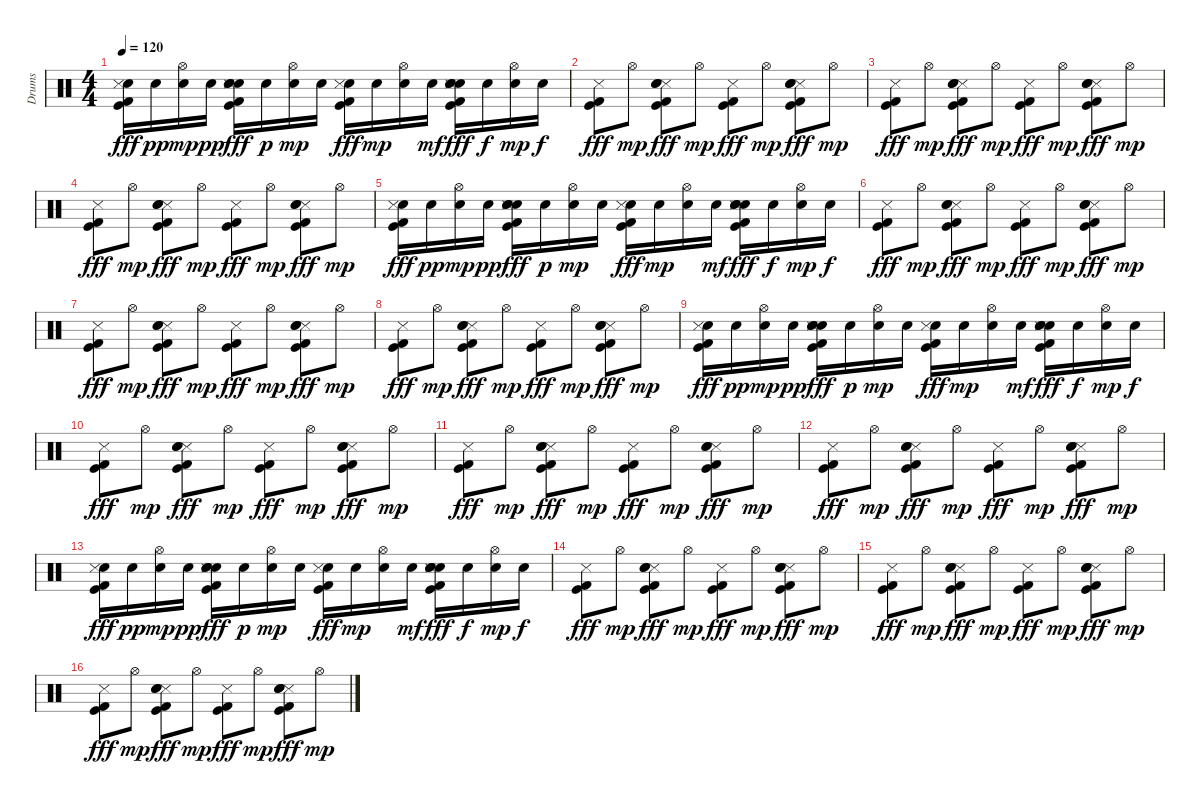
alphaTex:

\track ("Drums" "Drums") {instrument percussion}
\staff {score}
\articulation defaults
\ts (4 4)
\tempo 120
\clef neutral
\ks c
("Snare (hit)" "Metronome (hit)" "Kick (hit)" "Kick (hit) 2").16{dy fff} "Snare (hit)".16{dy pp} ("Snare (hit)" "Hi-Hat (open)").16{dy mp} "Snare (hit)".16{dy pp} ("Snare (hit)" "Metronome (hit)" "Kick (hit)" "Kick (hit) 2" "Snare (hit) 2" "Electric Snare (hit)").16{dy fff} "Snare (hit)".16{dy p} ("Snare (hit)" "Hi-Hat (open)").16{dy mp} "Snare (hit)".16 ("Snare (hit)" "Metronome (hit)" "Kick (hit)" "Kick (hit) 2").16{dy fff} "Snare (hit)".16{dy mp} ("Snare (hit)" "Hi-Hat (open)").16 "Snare (hit)".16{dy mf} ("Snare (hit)" "Metronome (hit)" "Kick (hit)" "Kick (hit) 2" "Snare (hit) 2" "Electric Snare (hit)").16{dy fff} "Snare (hit)".16{dy f} ("Snare (hit)" "Hi-Hat (open)").16{dy mp} "Snare (hit)".16{dy f} |
("Metronome (hit)" "Kick (hit)" "Kick (hit) 2").8{dy fff} "Hi-Hat (open)".8{dy mp} ("Metronome (hit)" "Kick (hit)" "Kick (hit) 2" "Snare (hit) 2" "Electric Snare (hit)").8{dy fff} "Hi-Hat (open)".8{dy mp} ("Metronome (hit)" "Kick (hit)" "Kick (hit) 2").8{dy fff} "Hi-Hat (open)".8{dy mp} ("Metronome (hit)" "Kick (hit)" "Kick (hit) 2" "Snare (hit) 2" "Electric Snare (hit)").8{dy fff} "Hi-Hat (open)".8{dy mp} |
("Metronome (hit)" "Kick (hit)" "Kick (hit) 2").8{dy fff} "Hi-Hat (open)".8{dy mp} ("Metronome (hit)" "Kick (hit)" "Kick (hit) 2" "Snare (hit) 2" "Electric Snare (hit)").8{dy fff} "Hi-Hat (open)".8{dy mp} ("Metronome (hit)" "Kick (hit)" "Kick (hit) 2").8{dy fff} "Hi-Hat (open)".8{dy mp} ("Metronome (hit)" "Kick (hit)" "Kick (hit) 2" "Snare (hit) 2" "Electric Snare (hit)").8{dy fff} "Hi-Hat (open)".8{dy mp} |
("Metronome (hit)" "Kick (hit)" "Kick (hit) 2").8{dy fff} "Hi-Hat (open)".8{dy mp} ("Metronome (hit)" "Kick (hit)" "Kick (hit) 2" "Snare (hit) 2" "Electric Snare (hit)").8{dy fff} "Hi-Hat (open)".8{dy mp} ("Metronome (hit)" "Kick (hit)" "Kick (hit) 2").8{dy fff} "Hi-Hat (open)".8{dy mp} ("Metronome (hit)" "Kick (hit)" "Kick (hit) 2" "Snare (hit) 2" "Electric Snare (hit)").8{dy fff} "Hi-Hat (open)".8{dy mp} |
("Snare (hit)" "Metronome (hit)" "Kick (hit)" "Kick (hit) 2").16{dy fff} "Snare (hit)".16{dy pp} ("Snare (hit)" "Hi-Hat (open)").16{dy mp} "Snare (hit)".16{dy pp} ("Snare (hit)" "Metronome (hit)" "Kick (hit)" "Kick (hit) 2" "Snare (hit) 2" "Electric Snare (hit)").16{dy fff} "Snare (hit)".16{dy p} ("Snare (hit)" "Hi-Hat (open)").16{dy mp} "Snare (hit)".16 ("Snare (hit)" "Metronome (hit)" "Kick (hit)" "Kick (hit) 2").16{dy fff} "Snare (hit)".16{dy mp} ("Snare (hit)" "Hi-Hat (open)").16 "Snare (hit)".16{dy mf} ("Snare (hit)" "Metronome (hit)" "Kick (hit)" "Kick (hit) 2" "Snare (hit) 2" "Electric Snare (hit)").16{dy fff} "Snare (hit)".16{dy f} ("Snare (hit)" "Hi-Hat (open)").16{dy mp} "Snare (hit)".16{dy f} |
("Metronome (hit)" "Kick (hit)" "Kick (hit) 2").8{dy fff} "Hi-Hat (open)".8{dy mp} ("Metronome (hit)" "Kick (hit)" "Kick (hit) 2" "Snare (hit) 2" "Electric Snare (hit)").8{dy fff} "Hi-Hat (open)".8{dy mp} ("Metronome (hit)" "Kick (hit)" "Kick (hit) 2").8{dy fff} "Hi-Hat (open)".8{dy mp} ("Metronome (hit)" "Kick (hit)" "Kick (hit) 2" "Snare (hit) 2" "Electric Snare (hit)").8{dy fff} "Hi-Hat (open)".8{dy mp} |
("Metronome (hit)" "Kick (hit)" "Kick (hit) 2").8{dy fff} "Hi-Hat (open)".8{dy mp} ("Metronome (hit)" "Kick (hit)" "Kick (hit) 2" "Snare (hit) 2" "Electric Snare (hit)").8{dy fff} "Hi-Hat (open)".8{dy mp} ("Metronome (hit)" "Kick (hit)" "Kick (hit) 2").8{dy fff} "Hi-Hat (open)".8{dy mp} ("Metronome (hit)" "Kick (hit)" "Kick (hit) 2" "Snare (hit) 2" "Electric Snare (hit)").8{dy fff} "Hi-Hat (open)".8{dy mp} |
("Metronome (hit)" "Kick (hit)" "Kick (hit) 2").8{dy fff} "Hi-Hat (open)".8{dy mp} ("Metronome (hit)" "Kick (hit)" "Kick (hit) 2" "Snare (hit) 2" "Electric Snare (hit)").8{dy fff} "Hi-Hat (open)".8{dy mp} ("Metronome (hit)" "Kick (hit)" "Kick (hit) 2").8{dy fff} "Hi-Hat (open)".8{dy mp} ("Metronome (hit)" "Kick (hit)" "Kick (hit) 2" "Snare (hit) 2" "Electric Snare (hit)").8{dy fff} "Hi-Hat (open)".8{dy mp} |
("Snare (hit)" "Metronome (hit)" "Kick (hit)" "Kick (hit) 2").16{dy fff} "Snare (hit)".16{dy pp} ("Snare (hit)" "Hi-Hat (open)").16{dy mp} "Snare (hit)".16{dy pp} ("Snare (hit)" "Metronome (hit)" "Kick (hit)" "Kick (hit) 2" "Snare (hit) 2" "Electric Snare (hit)").16{dy fff} "Snare (hit)".16{dy p} ("Snare (hit)" "Hi-Hat (open)").16{dy mp} "Snare (hit)".16 ("Snare (hit)" "Metronome (hit)" "Kick (hit)" "Kick (hit) 2").16{dy fff} "Snare (hit)".16{dy mp} ("Snare (hit)" "Hi-Hat (open)").16 "Snare (hit)".16{dy mf} ("Snare (hit)" "Metronome (hit)" "Kick (hit)" "Kick (hit) 2" "Snare (hit) 2" "Electric Snare (hit)").16{dy fff} "Snare (hit)".16{dy f} ("Snare (hit)" "Hi-Hat (open)").16{dy mp} "Snare (hit)".16{dy f} |
("Metronome (hit)" "Kick (hit)" "Kick (hit) 2").8{dy fff volume 13} "Hi-Hat (open)".8{dy mp} ("Metronome (hit)" "Kick (hit)" "Kick (hit) 2" "Snare (hit) 2" "Electric Snare (hit)").8{dy fff} "Hi-Hat (open)".8{dy mp} ("Metronome (hit)" "Kick (hit)" "Kick (hit) 2").8{dy fff} "Hi-Hat (open)".8{dy mp} ("Metronome (hit)" "Kick (hit)" "Kick (hit) 2" "Snare (hit) 2" "Electric Snare (hit)").8{dy fff} "Hi-Hat (open)".8{dy mp} |
("Metronome (hit)" "Kick (hit)" "Kick (hit) 2").8{dy fff} "Hi-Hat (open)".8{dy mp} ("Metronome (hit)" "Kick (hit)" "Kick (hit) 2" "Snare (hit) 2" "Electric Snare (hit)").8{dy fff} "Hi-Hat (open)".8{dy mp} ("Metronome (hit)" "Kick (hit)" "Kick (hit) 2").8{dy fff} "Hi-Hat (open)".8{dy mp} ("Metronome (hit)" "Kick (hit)" "Kick (hit) 2" "Snare (hit) 2" "Electric Snare (hit)").8{dy fff} "Hi-Hat (open)".8{dy mp} |
("Metronome (hit)" "Kick (hit)" "Kick (hit) 2").8{dy fff volume 10} "Hi-Hat (open)".8{dy mp} ("Metronome (hit)" "Kick (hit)" "Kick (hit) 2" "Snare (hit) 2" "Electric Snare (hit)").8{dy fff} "Hi-Hat (open)".8{dy mp} ("Metronome (hit)" "Kick (hit)" "Kick (hit) 2").8{dy fff} "Hi-Hat (open)".8{dy mp} ("Metronome (hit)" "Kick (hit)" "Kick (hit) 2" "Snare (hit) 2" "Electric Snare (hit)").8{dy fff} "Hi-Hat (open)".8{dy mp} |
("Snare (hit)" "Metronome (hit)" "Kick (hit)" "Kick (hit) 2").16{dy fff} "Snare (hit)".16{dy pp} ("Snare (hit)" "Hi-Hat (open)").16{dy mp} "Snare (hit)".16{dy pp} ("Snare (hit)" "Metronome (hit)" "Kick (hit)" "Kick (hit) 2" "Snare (hit) 2" "Electric Snare (hit)").16{dy fff} "Snare (hit)".16{dy p} ("Snare (hit)" "Hi-Hat (open)").16{dy mp} "Snare (hit)".16 ("Snare (hit)" "Metronome (hit)" "Kick (hit)" "Kick (hit) 2").16{dy fff} "Snare (hit)".16{dy mp} ("Snare (hit)" "Hi-Hat (open)").16 "Snare (hit)".16{dy mf} ("Snare (hit)" "Metronome (hit)" "Kick (hit)" "Kick (hit) 2" "Snare (hit) 2" "Electric Snare (hit)").16{dy fff} "Snare (hit)".16{dy f} ("Snare (hit)" "Hi-Hat (open)").16{dy mp} "Snare (hit)".16{dy f} |
("Metronome (hit)" "Kick (hit)" "Kick (hit) 2").8{dy fff volume 7} "Hi-Hat (open)".8{dy mp} ("Metronome (hit)" "Kick (hit)" "Kick (hit) 2" "Snare (hit) 2" "Electric Snare (hit)").8{dy fff} "Hi-Hat (open)".8{dy mp} ("Metronome (hit)" "Kick (hit)" "Kick (hit) 2").8{dy fff} "Hi-Hat (open)".8{dy mp} ("Metronome (hit)" "Kick (hit)" "Kick (hit) 2" "Snare (hit) 2" "Electric Snare (hit)").8{dy fff} "Hi-Hat (open)".8{dy mp} |
("Metronome (hit)" "Kick (hit)" "Kick (hit) 2").8{dy fff} "Hi-Hat (open)".8{dy mp} ("Metronome (hit)" "Kick (hit)" "Kick (hit) 2" "Snare (hit) 2" "Electric Snare (hit)").8{dy fff} "Hi-Hat (open)".8{dy mp} ("Metronome (hit)" "Kick (hit)" "Kick (hit) 2").8{dy fff} "Hi-Hat (open)".8{dy mp} ("Metronome (hit)" "Kick (hit)" "Kick (hit) 2" "Snare (hit) 2" "Electric Snare (hit)").8{dy fff} "Hi-Hat (open)".8{dy mp} |
("Metronome (hit)" "Kick (hit)" "Kick (hit) 2").8{dy fff volume 0} "Hi-Hat (open)".8{dy mp} ("Metronome (hit)" "Kick (hit)" "Kick (hit) 2" "Snare (hit) 2" "Electric Snare (hit)").8{dy fff} "Hi-Hat (open)".8{dy mp} ("Metronome (hit)" "Kick (hit)" "Kick (hit) 2").8{dy fff} "Hi-Hat (open)".8{dy mp} ("Metronome (hit)" "Kick (hit)" "Kick (hit) 2" "Snare (hit) 2" "Electric Snare (hit)").8{dy fff} "Hi-Hat (open)".8{dy mp}
